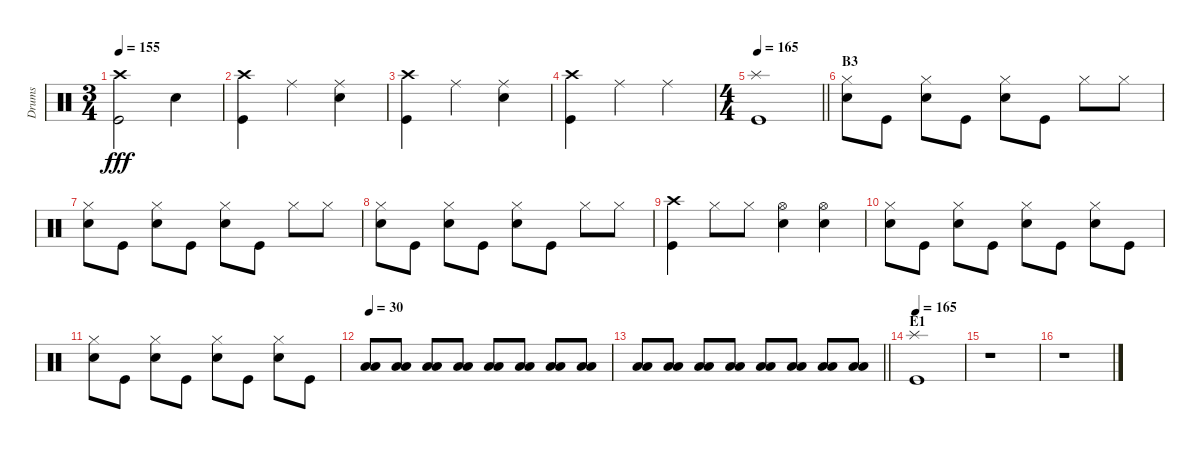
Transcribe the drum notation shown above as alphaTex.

\track ("Drums" "Drums") {instrument percussion}
\staff {score}
\articulation defaults
\ts (3 4)
\tempo 155
\clef neutral
\ks c
("Crash high (hit)" "Kick (hit)").2{dy fff} "Snare (hit) 2".4 |
("Crash high (hit)" "Kick (hit)").4 "Ride (middle)".4 ("Ride (middle)" "Snare (hit) 2").4 |
("Crash high (hit)" "Kick (hit)").4 "Ride (middle)".4 ("Ride (middle)" "Snare (hit) 2").4 |
("Crash high (hit)" "Kick (hit)").4 "Ride (middle)".4 "Ride (middle)".4 |
\ts (4 4)
\tempo 165
\barLineRight lightlight
("Splash (hit)" "Kick (hit)").1 |
\section ("" "B3")
("Hi-Hat (closed)" "Snare (hit) 2").8 "Kick (hit)".8 ("Hi-Hat (closed)" "Snare (hit) 2").8 "Kick (hit)".8 ("Hi-Hat (closed)" "Snare (hit) 2").8 "Kick (hit)".8 "Hi-Hat (closed)".8 "Hi-Hat (closed)".8 |
("Hi-Hat (closed)" "Snare (hit) 2").8 "Kick (hit)".8 ("Hi-Hat (closed)" "Snare (hit) 2").8 "Kick (hit)".8 ("Hi-Hat (closed)" "Snare (hit) 2").8 "Kick (hit)".8 "Hi-Hat (closed)".8 "Hi-Hat (closed)".8 |
("Hi-Hat (closed)" "Snare (hit) 2").8 "Kick (hit)".8 ("Hi-Hat (closed)" "Snare (hit) 2").8 "Kick (hit)".8 ("Hi-Hat (closed)" "Snare (hit) 2").8 "Kick (hit)".8 "Hi-Hat (closed)".8 "Hi-Hat (closed)".8 |
("Crash high (hit)" "Kick (hit)").4 "Hi-Hat (closed)".8 "Hi-Hat (closed)".8 ("Hi-Hat (open)" "Snare (hit) 2").4 ("Hi-Hat (open)" "Snare (hit) 2").4 |
("Hi-Hat (closed)" "Snare (hit) 2").8 "Kick (hit)".8 ("Hi-Hat (closed)" "Snare (hit) 2").8 "Kick (hit)".8 ("Hi-Hat (closed)" "Snare (hit) 2").8 "Kick (hit)".8 ("Hi-Hat (closed)" "Snare (hit) 2").8 "Kick (hit)".8 |
("Hi-Hat (closed)" "Snare (hit) 2").8 "Kick (hit)".8 ("Hi-Hat (closed)" "Snare (hit) 2").8 "Kick (hit)".8 ("Hi-Hat (closed)" "Snare (hit) 2").8 "Kick (hit)".8 ("Hi-Hat (closed)" "Snare (hit) 2").8 "Kick (hit)".8 |
\tempo 30
("Low Tom (hit)" "Low Floor Tom (hit)").8 ("Low Tom (hit)" "Low Floor Tom (hit)").8 ("Low Tom (hit)" "Low Floor Tom (hit)").8 ("Low Tom (hit)" "Low Floor Tom (hit)").8 ("Low Tom (hit)" "Low Floor Tom (hit)").8 ("Low Tom (hit)" "Low Floor Tom (hit)").8 ("Low Tom (hit)" "Low Floor Tom (hit)").8 ("Low Tom (hit)" "Low Floor Tom (hit)").8 |
\barLineRight lightlight
("Low Tom (hit)" "Low Floor Tom (hit)").8 ("Low Tom (hit)" "Low Floor Tom (hit)").8 ("Low Tom (hit)" "Low Floor Tom (hit)").8 ("Low Tom (hit)" "Low Floor Tom (hit)").8 ("Low Tom (hit)" "Low Floor Tom (hit)").8 ("Low Tom (hit)" "Low Floor Tom (hit)").8 ("Low Tom (hit)" "Low Floor Tom (hit)").8 ("Low Tom (hit)" "Low Floor Tom (hit)").8 |
\section ("" "E1")
\tempo 165
("Splash (hit)" "Kick (hit)").1 |
r.1 |
r.1
